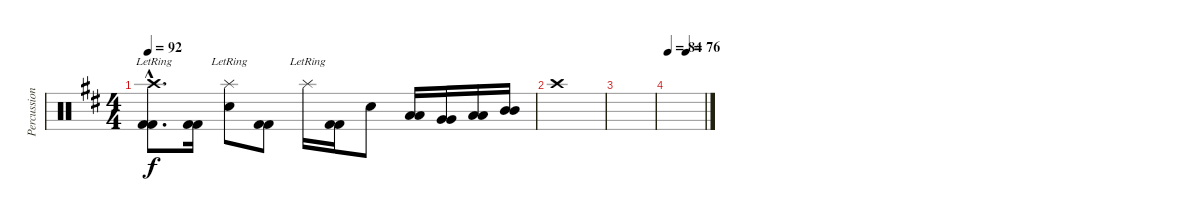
\track ("Percussion" "Percussion") {instrument percussion}
\staff {score}
\articulation defaults
\ts (4 4)
\tempo 92
\clef neutral
\ks d
("Crash high (hit)"{hac lr} "Kick (hit) 2"{hac} "Kick (hit) 2"{hac}).8{d dy f} ("Kick (hit) 2" "Kick (hit) 2").16 ("Splash (hit)"{lr} "Snare (hit) 2").8 ("Kick (hit) 2" "Kick (hit) 2").8 "Splash (hit)"{lr}.16 ("Kick (hit) 2" "Kick (hit) 2").16 "Snare (hit) 2".8 ("Low Floor Tom (hit)" "Low Floor Tom (hit)").16 ("Very Low Tom (hit)" "Very Low Tom (hit)").16 ("Low Tom (hit)" "Low Tom (hit)").16 ("Mid Tom (hit)" "Mid Tom (hit)").16 |
"Crash high (hit)".1 |
|
\tempo 84
\tempo (76 0.5)
